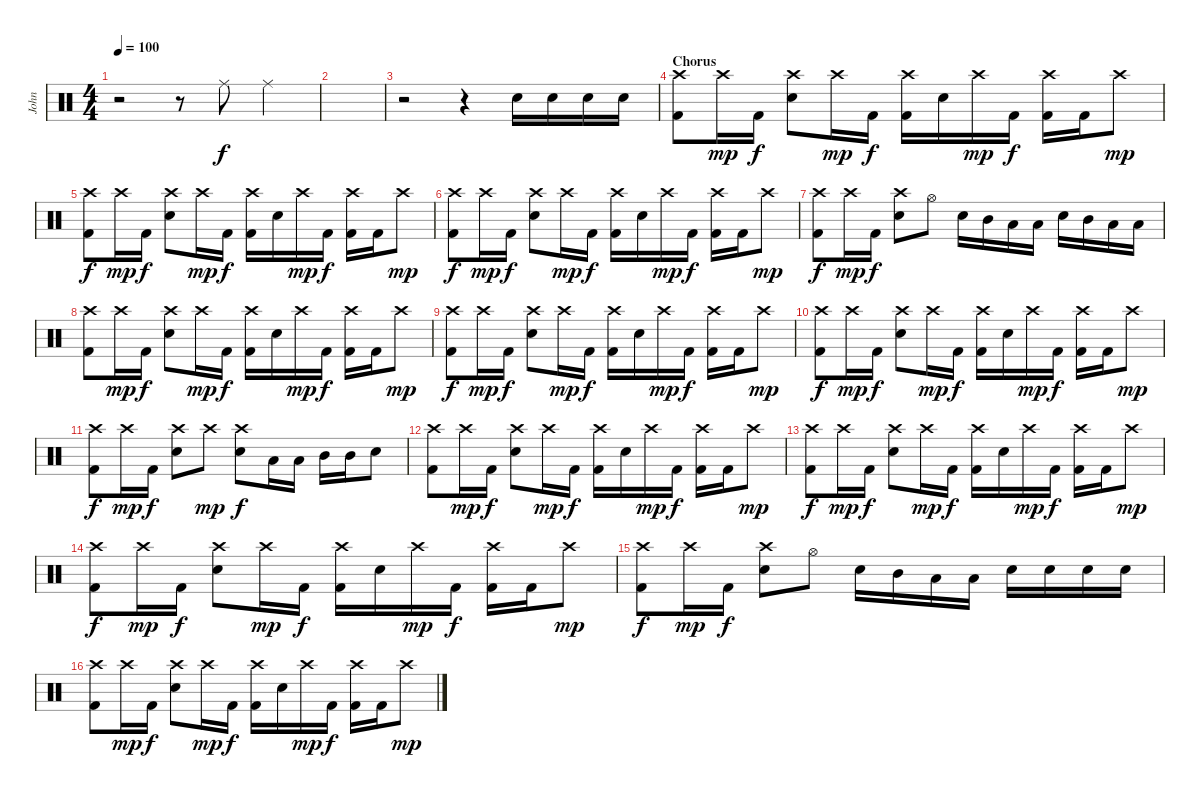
\track ("John" "John") {instrument percussion}
\staff {score}
\articulation defaults
\ts (4 4)
\tempo 100
\clef neutral
\ks c
r.2{dy f} r.8 "Ride (middle)".8 "Ride (middle)".4 |
|
r.2 r.4 "Electric Snare (hit)".16 "Electric Snare (hit)".16 "Electric Snare (hit)".16 "Electric Snare (hit)".16 |
\section ("" "Chorus")
("Crash high (hit)" "Kick (hit) 2").8 "Crash high (hit)".16{dy mp} "Kick (hit) 2".16{dy f} ("Crash high (hit)" "Electric Snare (hit)").8 "Crash high (hit)".16{dy mp} "Kick (hit) 2".16{dy f} ("Crash high (hit)" "Kick (hit) 2").16 "Electric Snare (hit)".16 "Crash high (hit)".16{dy mp} "Kick (hit) 2".16{dy f} ("Crash high (hit)" "Kick (hit) 2").16 "Kick (hit) 2".16 "Crash high (hit)".8{dy mp} |
("Crash high (hit)" "Kick (hit) 2").8{dy f} "Crash high (hit)".16{dy mp} "Kick (hit) 2".16{dy f} ("Crash high (hit)" "Electric Snare (hit)").8 "Crash high (hit)".16{dy mp} "Kick (hit) 2".16{dy f} ("Crash high (hit)" "Kick (hit) 2").16 "Electric Snare (hit)".16 "Crash high (hit)".16{dy mp} "Kick (hit) 2".16{dy f} ("Crash high (hit)" "Kick (hit) 2").16 "Kick (hit) 2".16 "Crash high (hit)".8{dy mp} |
("Crash high (hit)" "Kick (hit) 2").8{dy f} "Crash high (hit)".16{dy mp} "Kick (hit) 2".16{dy f} ("Crash high (hit)" "Electric Snare (hit)").8 "Crash high (hit)".16{dy mp} "Kick (hit) 2".16{dy f} ("Crash high (hit)" "Kick (hit) 2").16 "Electric Snare (hit)".16 "Crash high (hit)".16{dy mp} "Kick (hit) 2".16{dy f} ("Crash high (hit)" "Kick (hit) 2").16 "Kick (hit) 2".16 "Crash high (hit)".8{dy mp} |
("Crash high (hit)" "Kick (hit) 2").8{dy f} "Crash high (hit)".16{dy mp} "Kick (hit) 2".16{dy f} ("Crash high (hit)" "Electric Snare (hit)").8 "Hi-Hat (open)".8 "Electric Snare (hit)".16 "Mid Tom (hit)".16 "Low Tom (hit)".16 "Low Floor Tom (hit)".16 "Electric Snare (hit)".16 "Mid Tom (hit)".16 "Low Tom (hit)".16 "Low Floor Tom (hit)".16 |
("Crash high (hit)" "Kick (hit) 2").8 "Crash high (hit)".16{dy mp} "Kick (hit) 2".16{dy f} ("Crash high (hit)" "Electric Snare (hit)").8 "Crash high (hit)".16{dy mp} "Kick (hit) 2".16{dy f} ("Crash high (hit)" "Kick (hit) 2").16 "Electric Snare (hit)".16 "Crash high (hit)".16{dy mp} "Kick (hit) 2".16{dy f} ("Crash high (hit)" "Kick (hit) 2").16 "Kick (hit) 2".16 "Crash high (hit)".8{dy mp} |
("Crash high (hit)" "Kick (hit) 2").8{dy f} "Crash high (hit)".16{dy mp} "Kick (hit) 2".16{dy f} ("Crash high (hit)" "Electric Snare (hit)").8 "Crash high (hit)".16{dy mp} "Kick (hit) 2".16{dy f} ("Crash high (hit)" "Kick (hit) 2").16 "Electric Snare (hit)".16 "Crash high (hit)".16{dy mp} "Kick (hit) 2".16{dy f} ("Crash high (hit)" "Kick (hit) 2").16 "Kick (hit) 2".16 "Crash high (hit)".8{dy mp} |
("Crash high (hit)" "Kick (hit) 2").8{dy f} "Crash high (hit)".16{dy mp} "Kick (hit) 2".16{dy f} ("Crash high (hit)" "Electric Snare (hit)").8 "Crash high (hit)".16{dy mp} "Kick (hit) 2".16{dy f} ("Crash high (hit)" "Kick (hit) 2").16 "Electric Snare (hit)".16 "Crash high (hit)".16{dy mp} "Kick (hit) 2".16{dy f} ("Crash high (hit)" "Kick (hit) 2").16 "Kick (hit) 2".16 "Crash high (hit)".8{dy mp} |
("Crash high (hit)" "Kick (hit) 2").8{dy f} "Crash high (hit)".16{dy mp} "Kick (hit) 2".16{dy f} ("Crash high (hit)" "Electric Snare (hit)").8 "Crash high (hit)".8{dy mp} ("Crash high (hit)" "Electric Snare (hit)").8{dy f} "Low Tom (hit)".16 "Low Floor Tom (hit)".16 "Mid Tom (hit)".16 "Mid Tom (hit)".16 "Electric Snare (hit)".8 |
("Crash high (hit)" "Kick (hit) 2").8 "Crash high (hit)".16{dy mp} "Kick (hit) 2".16{dy f} ("Crash high (hit)" "Electric Snare (hit)").8 "Crash high (hit)".16{dy mp} "Kick (hit) 2".16{dy f} ("Crash high (hit)" "Kick (hit) 2").16 "Electric Snare (hit)".16 "Crash high (hit)".16{dy mp} "Kick (hit) 2".16{dy f} ("Crash high (hit)" "Kick (hit) 2").16 "Kick (hit) 2".16 "Crash high (hit)".8{dy mp} |
("Crash high (hit)" "Kick (hit) 2").8{dy f} "Crash high (hit)".16{dy mp} "Kick (hit) 2".16{dy f} ("Crash high (hit)" "Electric Snare (hit)").8 "Crash high (hit)".16{dy mp} "Kick (hit) 2".16{dy f} ("Crash high (hit)" "Kick (hit) 2").16 "Electric Snare (hit)".16 "Crash high (hit)".16{dy mp} "Kick (hit) 2".16{dy f} ("Crash high (hit)" "Kick (hit) 2").16 "Kick (hit) 2".16 "Crash high (hit)".8{dy mp} |
("Crash high (hit)" "Kick (hit) 2").8{dy f} "Crash high (hit)".16{dy mp} "Kick (hit) 2".16{dy f} ("Crash high (hit)" "Electric Snare (hit)").8 "Crash high (hit)".16{dy mp} "Kick (hit) 2".16{dy f} ("Crash high (hit)" "Kick (hit) 2").16 "Electric Snare (hit)".16 "Crash high (hit)".16{dy mp} "Kick (hit) 2".16{dy f} ("Crash high (hit)" "Kick (hit) 2").16 "Kick (hit) 2".16 "Crash high (hit)".8{dy mp} |
("Crash high (hit)" "Kick (hit) 2").8{dy f} "Crash high (hit)".16{dy mp} "Kick (hit) 2".16{dy f} ("Crash high (hit)" "Electric Snare (hit)").8 "Hi-Hat (open)".8 "Electric Snare (hit)".16 "Mid Tom (hit)".16 "Low Tom (hit)".16 "Low Floor Tom (hit)".16 "Electric Snare (hit)".16 "Electric Snare (hit)".16 "Electric Snare (hit)".16 "Electric Snare (hit)".16 |
("Crash high (hit)" "Kick (hit) 2").8 "Crash high (hit)".16{dy mp} "Kick (hit) 2".16{dy f} ("Crash high (hit)" "Electric Snare (hit)").8 "Crash high (hit)".16{dy mp} "Kick (hit) 2".16{dy f} ("Crash high (hit)" "Kick (hit) 2").16 "Electric Snare (hit)".16 "Crash high (hit)".16{dy mp} "Kick (hit) 2".16{dy f} ("Crash high (hit)" "Kick (hit) 2").16 "Kick (hit) 2".16 "Crash high (hit)".8{dy mp}
